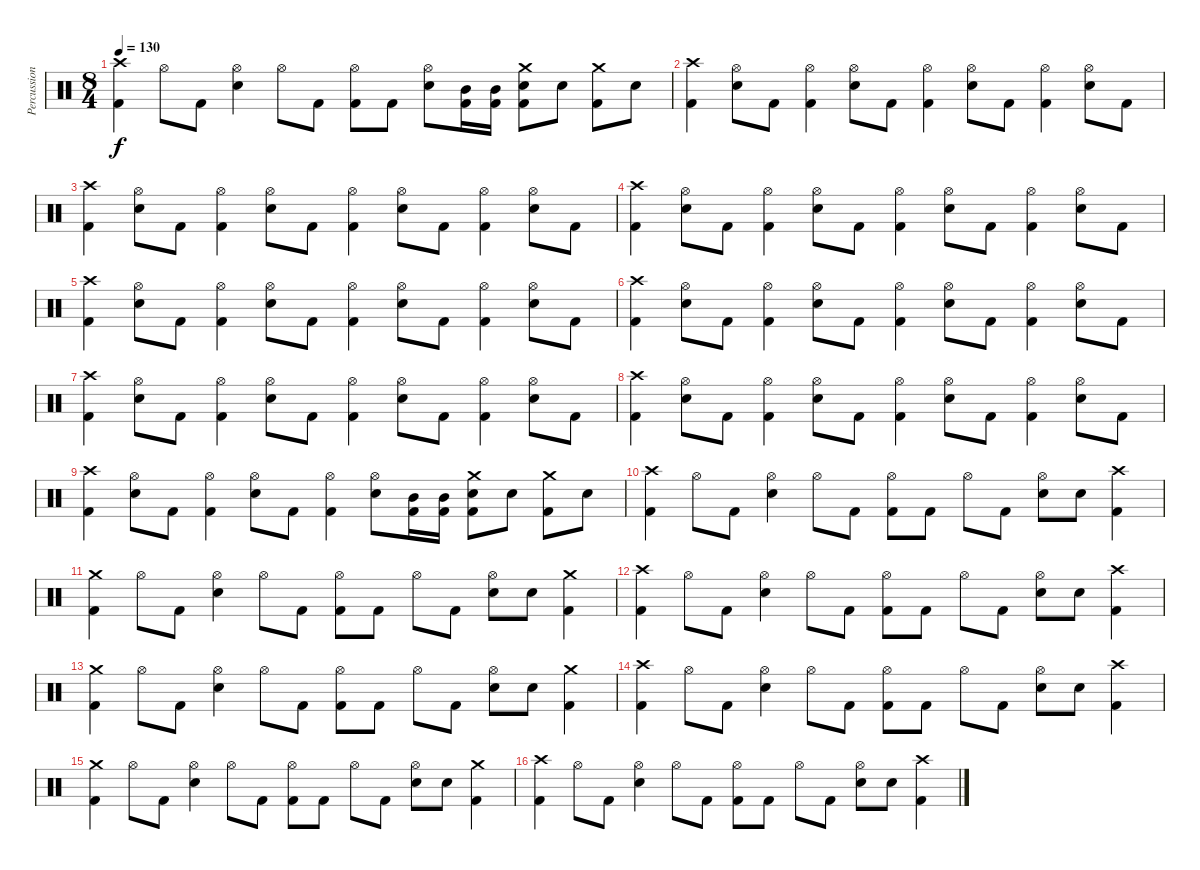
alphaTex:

\track ("Percussion" "Percussion") {instrument percussion}
\staff {score}
\articulation defaults
\ts (8 4)
\tempo 130
\clef neutral
\ks c
("Crash high (hit)" "Kick (hit) 2").4{dy f} "Hi-Hat (open)".8 "Kick (hit) 2".8 ("Hi-Hat (open)" "Snare (hit) 2").4 "Hi-Hat (open)".8 "Kick (hit) 2".8 ("Hi-Hat (open)" "Kick (hit) 2").8 "Kick (hit) 2".8 ("Hi-Hat (open)" "Snare (hit) 2").8 ("Mid Tom (hit)" "Kick (hit) 2").16 ("Mid Tom (hit)" "Kick (hit) 2").16 ("Crash medium (hit)" "Snare (hit) 2" "Kick (hit) 2").8 "Snare (hit) 2".8 ("Crash medium (hit)" "Kick (hit) 2").8 "Snare (hit) 2".8 |
("Crash high (hit)" "Kick (hit) 2").4 ("Hi-Hat (open)" "Snare (hit) 2").8 "Kick (hit) 2".8 ("Hi-Hat (open)" "Kick (hit) 2").4 ("Hi-Hat (open)" "Snare (hit) 2").8 "Kick (hit) 2".8 ("Hi-Hat (open)" "Kick (hit) 2").4 ("Hi-Hat (open)" "Snare (hit) 2").8 "Kick (hit) 2".8 ("Hi-Hat (open)" "Kick (hit) 2").4 ("Hi-Hat (open)" "Snare (hit) 2").8 "Kick (hit) 2".8 |
("Crash high (hit)" "Kick (hit) 2").4 ("Hi-Hat (open)" "Snare (hit) 2").8 "Kick (hit) 2".8 ("Hi-Hat (open)" "Kick (hit) 2").4 ("Hi-Hat (open)" "Snare (hit) 2").8 "Kick (hit) 2".8 ("Hi-Hat (open)" "Kick (hit) 2").4 ("Hi-Hat (open)" "Snare (hit) 2").8 "Kick (hit) 2".8 ("Hi-Hat (open)" "Kick (hit) 2").4 ("Hi-Hat (open)" "Snare (hit) 2").8 "Kick (hit) 2".8 |
("Crash high (hit)" "Kick (hit) 2").4 ("Hi-Hat (open)" "Snare (hit) 2").8 "Kick (hit) 2".8 ("Hi-Hat (open)" "Kick (hit) 2").4 ("Hi-Hat (open)" "Snare (hit) 2").8 "Kick (hit) 2".8 ("Hi-Hat (open)" "Kick (hit) 2").4 ("Hi-Hat (open)" "Snare (hit) 2").8 "Kick (hit) 2".8 ("Hi-Hat (open)" "Kick (hit) 2").4 ("Hi-Hat (open)" "Snare (hit) 2").8 "Kick (hit) 2".8 |
("Crash high (hit)" "Kick (hit) 2").4 ("Hi-Hat (open)" "Snare (hit) 2").8 "Kick (hit) 2".8 ("Hi-Hat (open)" "Kick (hit) 2").4 ("Hi-Hat (open)" "Snare (hit) 2").8 "Kick (hit) 2".8 ("Hi-Hat (open)" "Kick (hit) 2").4 ("Hi-Hat (open)" "Snare (hit) 2").8 "Kick (hit) 2".8 ("Hi-Hat (open)" "Kick (hit) 2").4 ("Hi-Hat (open)" "Snare (hit) 2").8 "Kick (hit) 2".8 |
("Crash high (hit)" "Kick (hit) 2").4 ("Hi-Hat (open)" "Snare (hit) 2").8 "Kick (hit) 2".8 ("Hi-Hat (open)" "Kick (hit) 2").4 ("Hi-Hat (open)" "Snare (hit) 2").8 "Kick (hit) 2".8 ("Hi-Hat (open)" "Kick (hit) 2").4 ("Hi-Hat (open)" "Snare (hit) 2").8 "Kick (hit) 2".8 ("Hi-Hat (open)" "Kick (hit) 2").4 ("Hi-Hat (open)" "Snare (hit) 2").8 "Kick (hit) 2".8 |
("Crash high (hit)" "Kick (hit) 2").4 ("Hi-Hat (open)" "Snare (hit) 2").8 "Kick (hit) 2".8 ("Hi-Hat (open)" "Kick (hit) 2").4 ("Hi-Hat (open)" "Snare (hit) 2").8 "Kick (hit) 2".8 ("Hi-Hat (open)" "Kick (hit) 2").4 ("Hi-Hat (open)" "Snare (hit) 2").8 "Kick (hit) 2".8 ("Hi-Hat (open)" "Kick (hit) 2").4 ("Hi-Hat (open)" "Snare (hit) 2").8 "Kick (hit) 2".8 |
("Crash high (hit)" "Kick (hit) 2").4 ("Hi-Hat (open)" "Snare (hit) 2").8 "Kick (hit) 2".8 ("Hi-Hat (open)" "Kick (hit) 2").4 ("Hi-Hat (open)" "Snare (hit) 2").8 "Kick (hit) 2".8 ("Hi-Hat (open)" "Kick (hit) 2").4 ("Hi-Hat (open)" "Snare (hit) 2").8 "Kick (hit) 2".8 ("Hi-Hat (open)" "Kick (hit) 2").4 ("Hi-Hat (open)" "Snare (hit) 2").8 "Kick (hit) 2".8 |
("Crash high (hit)" "Kick (hit) 2").4 ("Hi-Hat (open)" "Snare (hit) 2").8 "Kick (hit) 2".8 ("Hi-Hat (open)" "Kick (hit) 2").4 ("Hi-Hat (open)" "Snare (hit) 2").8 "Kick (hit) 2".8 ("Hi-Hat (open)" "Kick (hit) 2").4 ("Hi-Hat (open)" "Snare (hit) 2").8 ("Mid Tom (hit)" "Kick (hit) 2").16 ("Mid Tom (hit)" "Kick (hit) 2").16 ("Crash medium (hit)" "Snare (hit) 2" "Kick (hit) 2").8 "Snare (hit) 2".8 ("Crash medium (hit)" "Kick (hit) 2").8 "Snare (hit) 2".8 |
("Crash high (hit)" "Kick (hit) 2").4 "Hi-Hat (open)".8 "Kick (hit) 2".8 ("Hi-Hat (open)" "Snare (hit) 2").4 "Hi-Hat (open)".8 "Kick (hit) 2".8 ("Hi-Hat (open)" "Kick (hit) 2").8 "Kick (hit) 2".8 "Hi-Hat (open)".8 "Kick (hit) 2".8 ("Hi-Hat (open)" "Snare (hit) 2").8 "Snare (hit) 2".8 ("Crash high (hit)" "Kick (hit) 2").4 |
("Crash medium (hit)" "Kick (hit) 2").4 "Hi-Hat (open)".8 "Kick (hit) 2".8 ("Hi-Hat (open)" "Snare (hit) 2").4 "Hi-Hat (open)".8 "Kick (hit) 2".8 ("Hi-Hat (open)" "Kick (hit) 2").8 "Kick (hit) 2".8 "Hi-Hat (open)".8 "Kick (hit) 2".8 ("Hi-Hat (open)" "Snare (hit) 2").8 "Snare (hit) 2".8 ("Crash medium (hit)" "Kick (hit) 2").4 |
("Crash high (hit)" "Kick (hit) 2").4 "Hi-Hat (open)".8 "Kick (hit) 2".8 ("Hi-Hat (open)" "Snare (hit) 2").4 "Hi-Hat (open)".8 "Kick (hit) 2".8 ("Hi-Hat (open)" "Kick (hit) 2").8 "Kick (hit) 2".8 "Hi-Hat (open)".8 "Kick (hit) 2".8 ("Hi-Hat (open)" "Snare (hit) 2").8 "Snare (hit) 2".8 ("Crash high (hit)" "Kick (hit) 2").4 |
("Crash medium (hit)" "Kick (hit) 2").4 "Hi-Hat (open)".8 "Kick (hit) 2".8 ("Hi-Hat (open)" "Snare (hit) 2").4 "Hi-Hat (open)".8 "Kick (hit) 2".8 ("Hi-Hat (open)" "Kick (hit) 2").8 "Kick (hit) 2".8 "Hi-Hat (open)".8 "Kick (hit) 2".8 ("Hi-Hat (open)" "Snare (hit) 2").8 "Snare (hit) 2".8 ("Crash medium (hit)" "Kick (hit) 2").4 |
("Crash high (hit)" "Kick (hit) 2").4 "Hi-Hat (open)".8 "Kick (hit) 2".8 ("Hi-Hat (open)" "Snare (hit) 2").4 "Hi-Hat (open)".8 "Kick (hit) 2".8 ("Hi-Hat (open)" "Kick (hit) 2").8 "Kick (hit) 2".8 "Hi-Hat (open)".8 "Kick (hit) 2".8 ("Hi-Hat (open)" "Snare (hit) 2").8 "Snare (hit) 2".8 ("Crash high (hit)" "Kick (hit) 2").4 |
("Crash medium (hit)" "Kick (hit) 2").4 "Hi-Hat (open)".8 "Kick (hit) 2".8 ("Hi-Hat (open)" "Snare (hit) 2").4 "Hi-Hat (open)".8 "Kick (hit) 2".8 ("Hi-Hat (open)" "Kick (hit) 2").8 "Kick (hit) 2".8 "Hi-Hat (open)".8 "Kick (hit) 2".8 ("Hi-Hat (open)" "Snare (hit) 2").8 "Snare (hit) 2".8 ("Crash medium (hit)" "Kick (hit) 2").4 |
("Crash high (hit)" "Kick (hit) 2").4 "Hi-Hat (open)".8 "Kick (hit) 2".8 ("Hi-Hat (open)" "Snare (hit) 2").4 "Hi-Hat (open)".8 "Kick (hit) 2".8 ("Hi-Hat (open)" "Kick (hit) 2").8 "Kick (hit) 2".8 "Hi-Hat (open)".8 "Kick (hit) 2".8 ("Hi-Hat (open)" "Snare (hit) 2").8 "Snare (hit) 2".8 ("Crash high (hit)" "Kick (hit) 2").4
